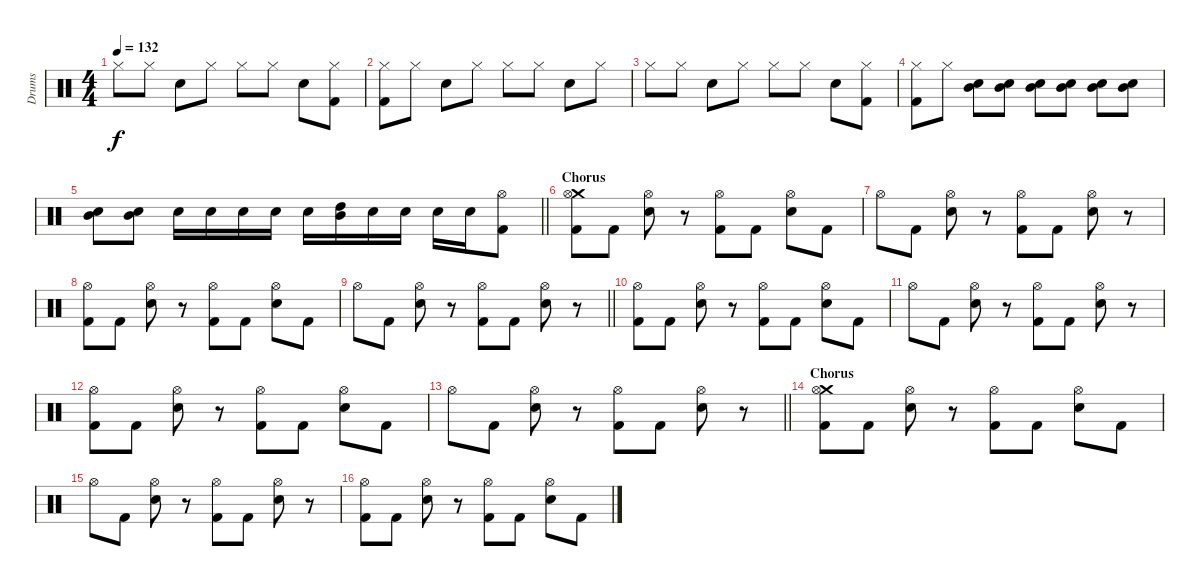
\track ("Drums" "Drums") {instrument percussion}
\staff
\articulation defaults
\ts (4 4)
\tempo 132
\clef neutral
\ks c "Hi-Hat (closed)".8{dy f} "Hi-Hat (closed)".8 "Snare (hit) 2".8 "Hi-Hat (closed)".8 "Hi-Hat (closed)".8 "Hi-Hat (closed)".8 "Snare (hit) 2".8
("Hi-Hat (closed)" "Kick (hit) 2").8 |
("Hi-Hat (closed)" "Kick (hit) 2").8 "Hi-Hat (closed)".8 "Snare (hit) 2".8 "Hi-Hat (closed)".8 "Hi-Hat (closed)".8 "Hi-Hat (closed)".8 "Snare (hit) 2".8 "Hi-Hat (closed)".8 |
"Hi-Hat (closed)".8 "Hi-Hat (closed)".8 "Snare (hit) 2".8 "Hi-Hat (closed)".8 "Hi-Hat (closed)".8 "Hi-Hat (closed)".8 "Snare (hit) 2".8 ("Hi-Hat (closed)" "Kick (hit) 2").8 |
("Hi-Hat (closed)" "Kick (hit) 2").8 "Hi-Hat (closed)".8 ("Mid Tom (hit)" "Snare (hit) 2").8 ("Mid Tom (hit)" "Snare (hit) 2").8 ("Mid Tom (hit)" "Snare (hit) 2").8 ("Mid Tom (hit)" "Snare (hit) 2").8 ("Mid Tom (hit)" "Snare (hit) 2").8 ("Mid Tom (hit)" "Snare (hit) 2").8 |
\barLineRight lightlight
("Mid Tom (hit)" "Snare (hit) 2").8 ("Mid Tom (hit)" "Snare (hit) 2").8 "Snare (hit) 2".16 "Snare (hit) 2".16 "Snare (hit) 2".16 "Snare (hit) 2".16 "Snare (hit) 2".16 ("Mid Tom (hit)" "High Tom (hit)").16 "Snare (hit) 2".16 "Snare (hit) 2".16 "Snare (hit) 2".16 "Snare (hit) 2".16 ("Hi-Hat (open)" "Kick (hit) 2").8 |
\section ("" "Chorus")
("Crash medium (hit)" "Hi-Hat (open)" "Kick (hit) 2").8 "Kick (hit) 2".8 ("Hi-Hat (open)" "Snare (hit) 2").8 r.8 ("Hi-Hat (open)" "Kick (hit) 2").8 "Kick (hit) 2".8 ("Hi-Hat (open)" "Snare (hit) 2").8 "Kick (hit) 2".8 |
"Hi-Hat (open)".8 "Kick (hit) 2".8 ("Hi-Hat (open)" "Snare (hit) 2").8 r.8 ("Hi-Hat (open)" "Kick (hit) 2").8 "Kick (hit) 2".8 ("Hi-Hat (open)" "Snare (hit) 2").8 r.8 |
("Hi-Hat (open)" "Kick (hit) 2").8 "Kick (hit) 2".8 ("Hi-Hat (open)" "Snare (hit) 2").8 r.8 ("Hi-Hat (open)" "Kick (hit) 2").8 "Kick (hit) 2".8 ("Hi-Hat (open)" "Snare (hit) 2").8 "Kick (hit) 2".8 |
\barLineRight lightlight "Hi-Hat (open)".8 "Kick (hit) 2".8
("Hi-Hat (open)" "Snare (hit) 2").8 r.8 ("Hi-Hat (open)" "Kick (hit) 2").8 "Kick (hit) 2".8 ("Hi-Hat (open)" "Snare (hit) 2").8 r.8 |
("Hi-Hat (open)" "Kick (hit) 2").8 "Kick (hit) 2".8 ("Hi-Hat (open)" "Snare (hit) 2").8 r.8 ("Hi-Hat (open)" "Kick (hit) 2").8 "Kick (hit) 2".8 ("Hi-Hat (open)" "Snare (hit) 2").8 "Kick (hit) 2".8 |
"Hi-Hat (open)".8 "Kick (hit) 2".8 ("Hi-Hat (open)" "Snare (hit) 2").8 r.8 ("Hi-Hat (open)" "Kick (hit) 2").8 "Kick (hit) 2".8 ("Hi-Hat (open)" "Snare (hit) 2").8 r.8 |
("Hi-Hat (open)" "Kick (hit) 2").8 "Kick (hit) 2".8 ("Hi-Hat (open)" "Snare (hit) 2").8 r.8 ("Hi-Hat (open)" "Kick (hit) 2").8 "Kick (hit) 2".8 ("Hi-Hat (open)" "Snare (hit) 2").8 "Kick (hit) 2".8 |
\barLineRight lightlight "Hi-Hat (open)".8 "Kick (hit) 2".8
("Hi-Hat (open)" "Snare (hit) 2").8 r.8 ("Hi-Hat (open)" "Kick (hit) 2").8 "Kick (hit) 2".8 ("Hi-Hat (open)" "Snare (hit) 2").8 r.8 |
\section ("" "Chorus")
("Crash medium (hit)" "Hi-Hat (open)" "Kick (hit) 2").8 "Kick (hit) 2".8 ("Hi-Hat (open)" "Snare (hit) 2").8 r.8 ("Hi-Hat (open)" "Kick (hit) 2").8 "Kick (hit) 2".8 ("Hi-Hat (open)" "Snare (hit) 2").8 "Kick (hit) 2".8 |
"Hi-Hat (open)".8 "Kick (hit) 2".8 ("Hi-Hat (open)" "Snare (hit) 2").8 r.8 ("Hi-Hat (open)" "Kick (hit) 2").8 "Kick (hit) 2".8 ("Hi-Hat (open)" "Snare (hit) 2").8 r.8 |
("Hi-Hat (open)" "Kick (hit) 2").8 "Kick (hit) 2".8 ("Hi-Hat (open)" "Snare (hit) 2").8 r.8 ("Hi-Hat (open)" "Kick (hit) 2").8 "Kick (hit) 2".8 ("Hi-Hat (open)" "Snare (hit) 2").8 "Kick (hit) 2".8
